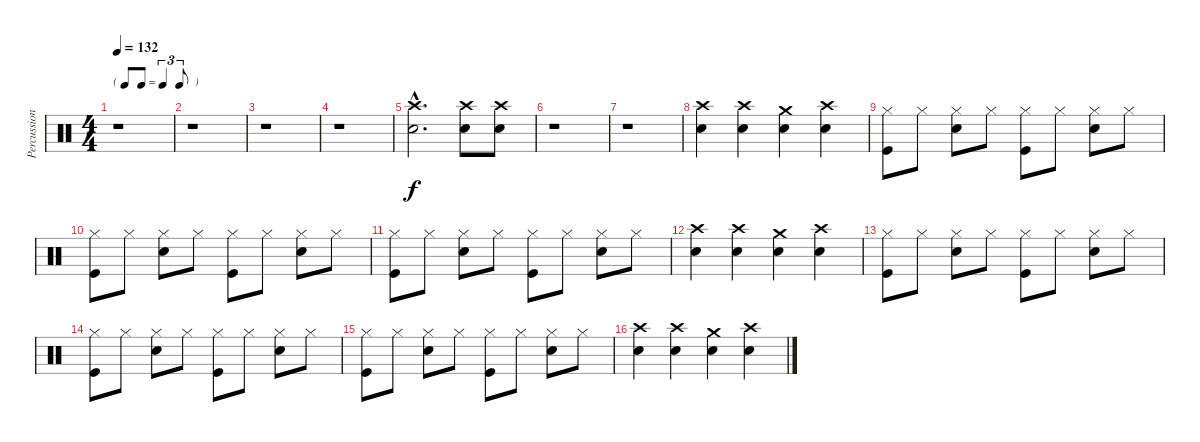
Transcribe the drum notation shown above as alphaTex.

\track ("Percussion" "Percussion") {instrument percussion}
\staff {score}
\articulation defaults
\ts (4 4)
\tf triplet8th
\tempo 132
\clef neutral
\ks c
r.1{dy f} |
r.1 |
r.1 |
r.1 |
("Crash high (hit)"{hac} "Snare (hit) 2"{hac}).2{d} ("Crash high (hit)" "Snare (hit) 2").8 ("Crash high (hit)" "Snare (hit) 2").8 |
r.1 |
r.1 |
("Crash high (hit)" "Snare (hit) 2").4 ("Crash high (hit)" "Snare (hit) 2").4 ("Crash medium (hit)" "Snare (hit) 2").4 ("Crash high (hit)" "Snare (hit) 2").4 |
("Hi-Hat (closed)" "Kick (hit)").8 "Hi-Hat (closed)".8 ("Hi-Hat (closed)" "Snare (hit) 2").8 "Hi-Hat (closed)".8 ("Hi-Hat (closed)" "Kick (hit)").8 "Hi-Hat (closed)".8 ("Hi-Hat (closed)" "Snare (hit) 2").8 "Hi-Hat (closed)".8 |
("Hi-Hat (closed)" "Kick (hit)").8 "Hi-Hat (closed)".8 ("Hi-Hat (closed)" "Snare (hit) 2").8 "Hi-Hat (closed)".8 ("Hi-Hat (closed)" "Kick (hit)").8 "Hi-Hat (closed)".8 ("Hi-Hat (closed)" "Snare (hit) 2").8 "Hi-Hat (closed)".8 |
("Hi-Hat (closed)" "Kick (hit)").8 "Hi-Hat (closed)".8 ("Hi-Hat (closed)" "Snare (hit) 2").8 "Hi-Hat (closed)".8 ("Hi-Hat (closed)" "Kick (hit)").8 "Hi-Hat (closed)".8 ("Hi-Hat (closed)" "Snare (hit) 2").8 "Hi-Hat (closed)".8 |
("Crash high (hit)" "Snare (hit) 2").4 ("Crash high (hit)" "Snare (hit) 2").4 ("Crash medium (hit)" "Snare (hit) 2").4 ("Crash high (hit)" "Snare (hit) 2").4 |
("Hi-Hat (closed)" "Kick (hit)").8 "Hi-Hat (closed)".8 ("Hi-Hat (closed)" "Snare (hit) 2").8 "Hi-Hat (closed)".8 ("Hi-Hat (closed)" "Kick (hit)").8 "Hi-Hat (closed)".8 ("Hi-Hat (closed)" "Snare (hit) 2").8 "Hi-Hat (closed)".8 |
("Hi-Hat (closed)" "Kick (hit)").8 "Hi-Hat (closed)".8 ("Hi-Hat (closed)" "Snare (hit) 2").8 "Hi-Hat (closed)".8 ("Hi-Hat (closed)" "Kick (hit)").8 "Hi-Hat (closed)".8 ("Hi-Hat (closed)" "Snare (hit) 2").8 "Hi-Hat (closed)".8 |
("Hi-Hat (closed)" "Kick (hit)").8 "Hi-Hat (closed)".8 ("Hi-Hat (closed)" "Snare (hit) 2").8 "Hi-Hat (closed)".8 ("Hi-Hat (closed)" "Kick (hit)").8 "Hi-Hat (closed)".8 ("Hi-Hat (closed)" "Snare (hit) 2").8 "Hi-Hat (closed)".8 |
("Crash high (hit)" "Snare (hit) 2").4 ("Crash high (hit)" "Snare (hit) 2").4 ("Crash medium (hit)" "Snare (hit) 2").4 ("Crash high (hit)" "Snare (hit) 2").4
